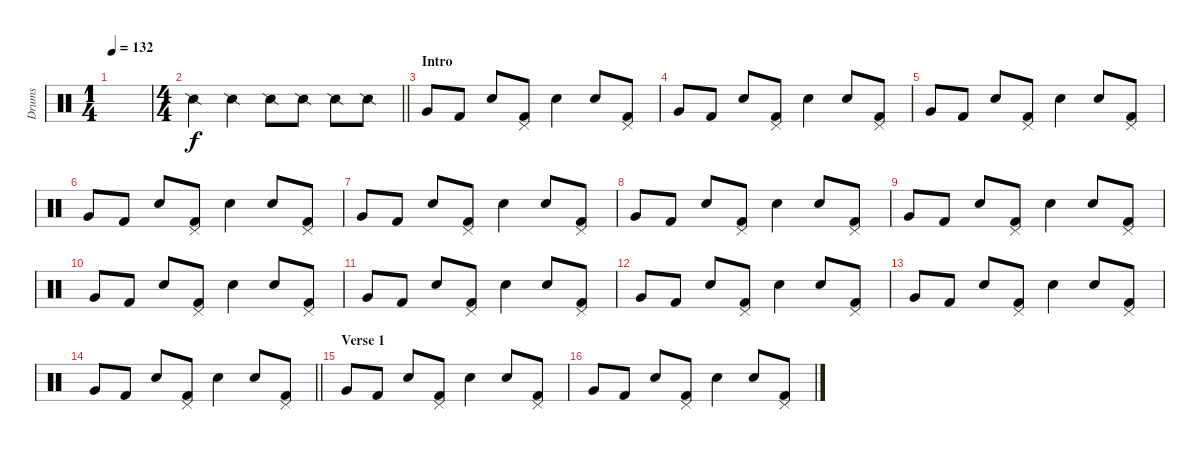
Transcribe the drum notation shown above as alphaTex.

\track ("Drums" "Drums") {instrument percussion}
\staff {score}
\articulation defaults
\ts (1 4)
\tempo 132
\clef neutral
\ks c
|
\ts (4 4)
\barLineRight lightlight "Snare (side stick) 2".4 "Snare (side stick) 2".4 "Snare (side stick) 2".8 "Snare (side stick) 2".8 "Snare (side stick) 2".8 "Snare (side stick) 2".8
|
\section ("" "Intro")
"Very Low Tom (hit)".8 "Kick (hit) 2".8 "Snare (hit) 2".8 ("Pedal Hi-Hat (hit)" "Kick (hit) 2").8 "Snare (hit) 2".4 "Snare (hit) 2".8 ("Pedal Hi-Hat (hit)" "Kick (hit) 2").8 |
"Very Low Tom (hit)".8 "Kick (hit) 2".8 "Snare (hit) 2".8 ("Pedal Hi-Hat (hit)" "Kick (hit) 2").8 "Snare (hit) 2".4 "Snare (hit) 2".8 ("Pedal Hi-Hat (hit)" "Kick (hit) 2").8 |
"Very Low Tom (hit)".8 "Kick (hit) 2".8 "Snare (hit) 2".8 ("Pedal Hi-Hat (hit)" "Kick (hit) 2").8 "Snare (hit) 2".4 "Snare (hit) 2".8 ("Pedal Hi-Hat (hit)" "Kick (hit) 2").8 |
"Very Low Tom (hit)".8 "Kick (hit) 2".8 "Snare (hit) 2".8 ("Pedal Hi-Hat (hit)" "Kick (hit) 2").8 "Snare (hit) 2".4 "Snare (hit) 2".8 ("Pedal Hi-Hat (hit)" "Kick (hit) 2").8 |
"Very Low Tom (hit)".8 "Kick (hit) 2".8 "Snare (hit) 2".8 ("Pedal Hi-Hat (hit)" "Kick (hit) 2").8 "Snare (hit) 2".4 "Snare (hit) 2".8 ("Pedal Hi-Hat (hit)" "Kick (hit) 2").8 |
"Very Low Tom (hit)".8 "Kick (hit) 2".8 "Snare (hit) 2".8 ("Pedal Hi-Hat (hit)" "Kick (hit) 2").8 "Snare (hit) 2".4 "Snare (hit) 2".8 ("Pedal Hi-Hat (hit)" "Kick (hit) 2").8 |
"Very Low Tom (hit)".8 "Kick (hit) 2".8 "Snare (hit) 2".8 ("Pedal Hi-Hat (hit)" "Kick (hit) 2").8 "Snare (hit) 2".4 "Snare (hit) 2".8 ("Pedal Hi-Hat (hit)" "Kick (hit) 2").8 |
"Very Low Tom (hit)".8 "Kick (hit) 2".8 "Snare (hit) 2".8 ("Pedal Hi-Hat (hit)" "Kick (hit) 2").8 "Snare (hit) 2".4 "Snare (hit) 2".8 ("Pedal Hi-Hat (hit)" "Kick (hit) 2").8 |
"Very Low Tom (hit)".8 "Kick (hit) 2".8 "Snare (hit) 2".8 ("Pedal Hi-Hat (hit)" "Kick (hit) 2").8 "Snare (hit) 2".4 "Snare (hit) 2".8 ("Pedal Hi-Hat (hit)" "Kick (hit) 2").8 |
"Very Low Tom (hit)".8 "Kick (hit) 2".8 "Snare (hit) 2".8 ("Pedal Hi-Hat (hit)" "Kick (hit) 2").8 "Snare (hit) 2".4 "Snare (hit) 2".8 ("Pedal Hi-Hat (hit)" "Kick (hit) 2").8 |
"Very Low Tom (hit)".8 "Kick (hit) 2".8 "Snare (hit) 2".8 ("Pedal Hi-Hat (hit)" "Kick (hit) 2").8 "Snare (hit) 2".4 "Snare (hit) 2".8 ("Pedal Hi-Hat (hit)" "Kick (hit) 2").8 |
\barLineRight lightlight "Very Low Tom (hit)".8 "Kick (hit) 2".8 "Snare (hit) 2".8
("Pedal Hi-Hat (hit)" "Kick (hit) 2").8 "Snare (hit) 2".4 "Snare (hit) 2".8 ("Pedal Hi-Hat (hit)" "Kick (hit) 2").8 |
\section ("" "Verse 1")
"Very Low Tom (hit)".8 "Kick (hit) 2".8 "Snare (hit) 2".8 ("Pedal Hi-Hat (hit)" "Kick (hit) 2").8 "Snare (hit) 2".4 "Snare (hit) 2".8 ("Pedal Hi-Hat (hit)" "Kick (hit) 2").8 |
"Very Low Tom (hit)".8 "Kick (hit) 2".8 "Snare (hit) 2".8 ("Pedal Hi-Hat (hit)" "Kick (hit) 2").8 "Snare (hit) 2".4 "Snare (hit) 2".8 ("Pedal Hi-Hat (hit)" "Kick (hit) 2").8
